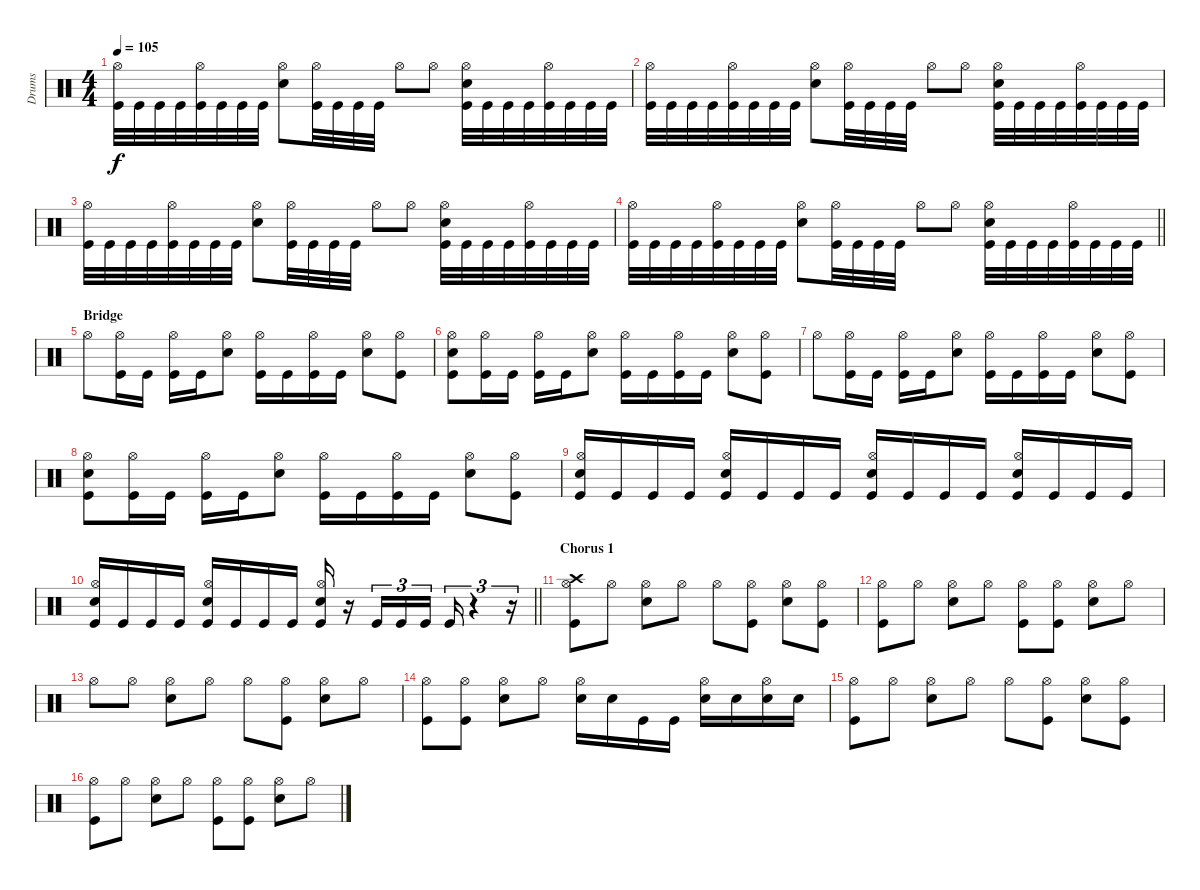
\track ("Drums" "Drums") {instrument percussion}
\staff {score}
\articulation defaults
\ts (4 4)
\tempo 105
\clef neutral
\ks c
("Kick (hit)" "Hi-Hat (open)").32{dy f} "Kick (hit)".32 "Kick (hit)".32 "Kick (hit)".32 ("Kick (hit)" "Hi-Hat (open)").32 "Kick (hit)".32 "Kick (hit)".32 "Kick (hit)".32 ("Hi-Hat (open)" "Snare (hit) 2").8 ("Hi-Hat (open)" "Kick (hit)").32 "Kick (hit)".32 "Kick (hit)".32 "Kick (hit)".32 "Hi-Hat (open)".8 "Hi-Hat (open)".8 ("Hi-Hat (open)" "Snare (hit) 2" "Kick (hit)").32 "Kick (hit)".32 "Kick (hit)".32 "Kick (hit)".32 ("Hi-Hat (open)" "Kick (hit)").32 "Kick (hit)".32 "Kick (hit)".32 "Kick (hit)".32 |
("Kick (hit)" "Hi-Hat (open)").32 "Kick (hit)".32 "Kick (hit)".32 "Kick (hit)".32 ("Kick (hit)" "Hi-Hat (open)").32 "Kick (hit)".32 "Kick (hit)".32 "Kick (hit)".32 ("Hi-Hat (open)" "Snare (hit) 2").8 ("Hi-Hat (open)" "Kick (hit)").32 "Kick (hit)".32 "Kick (hit)".32 "Kick (hit)".32 "Hi-Hat (open)".8 "Hi-Hat (open)".8 ("Hi-Hat (open)" "Snare (hit) 2" "Kick (hit)").32 "Kick (hit)".32 "Kick (hit)".32 "Kick (hit)".32 ("Hi-Hat (open)" "Kick (hit)").32 "Kick (hit)".32 "Kick (hit)".32 "Kick (hit)".32 |
("Kick (hit)" "Hi-Hat (open)").32 "Kick (hit)".32 "Kick (hit)".32 "Kick (hit)".32 ("Kick (hit)" "Hi-Hat (open)").32 "Kick (hit)".32 "Kick (hit)".32 "Kick (hit)".32 ("Hi-Hat (open)" "Snare (hit) 2").8 ("Hi-Hat (open)" "Kick (hit)").32 "Kick (hit)".32 "Kick (hit)".32 "Kick (hit)".32 "Hi-Hat (open)".8 "Hi-Hat (open)".8 ("Hi-Hat (open)" "Snare (hit) 2" "Kick (hit)").32 "Kick (hit)".32 "Kick (hit)".32 "Kick (hit)".32 ("Hi-Hat (open)" "Kick (hit)").32 "Kick (hit)".32 "Kick (hit)".32 "Kick (hit)".32 |
\barLineRight lightlight
("Kick (hit)" "Hi-Hat (open)").32 "Kick (hit)".32 "Kick (hit)".32 "Kick (hit)".32 ("Kick (hit)" "Hi-Hat (open)").32 "Kick (hit)".32 "Kick (hit)".32 "Kick (hit)".32 ("Hi-Hat (open)" "Snare (hit) 2").8 ("Hi-Hat (open)" "Kick (hit)").32 "Kick (hit)".32 "Kick (hit)".32 "Kick (hit)".32 "Hi-Hat (open)".8 "Hi-Hat (open)".8 ("Hi-Hat (open)" "Snare (hit) 2" "Kick (hit)").32 "Kick (hit)".32 "Kick (hit)".32 "Kick (hit)".32 ("Hi-Hat (open)" "Kick (hit)").32 "Kick (hit)".32 "Kick (hit)".32 "Kick (hit)".32 |
\section ("" "Bridge")
"Hi-Hat (open)".8 ("Hi-Hat (open)" "Kick (hit)").16 "Kick (hit)".16 ("Kick (hit)" "Hi-Hat (open)").16 "Kick (hit)".16 ("Snare (hit) 2" "Hi-Hat (open)").8 ("Kick (hit)" "Hi-Hat (open)").16 "Kick (hit)".16 ("Hi-Hat (open)" "Kick (hit)").16 "Kick (hit)".16 ("Snare (hit) 2" "Hi-Hat (open)").8 ("Hi-Hat (open)" "Kick (hit)").8 |
("Kick (hit)" "Snare (hit) 2" "Hi-Hat (open)").8 ("Hi-Hat (open)" "Kick (hit)").16 "Kick (hit)".16 ("Kick (hit)" "Hi-Hat (open)").16 "Kick (hit)".16 ("Snare (hit) 2" "Hi-Hat (open)").8 ("Kick (hit)" "Hi-Hat (open)").16 "Kick (hit)".16 ("Hi-Hat (open)" "Kick (hit)").16 "Kick (hit)".16 ("Snare (hit) 2" "Hi-Hat (open)").8 ("Hi-Hat (open)" "Kick (hit)").8 |
"Hi-Hat (open)".8 ("Hi-Hat (open)" "Kick (hit)").16 "Kick (hit)".16 ("Kick (hit)" "Hi-Hat (open)").16 "Kick (hit)".16 ("Snare (hit) 2" "Hi-Hat (open)").8 ("Kick (hit)" "Hi-Hat (open)").16 "Kick (hit)".16 ("Hi-Hat (open)" "Kick (hit)").16 "Kick (hit)".16 ("Snare (hit) 2" "Hi-Hat (open)").8 ("Hi-Hat (open)" "Kick (hit)").8 |
("Kick (hit)" "Snare (hit) 2" "Hi-Hat (open)").8 ("Hi-Hat (open)" "Kick (hit)").16 "Kick (hit)".16 ("Kick (hit)" "Hi-Hat (open)").16 "Kick (hit)".16 ("Snare (hit) 2" "Hi-Hat (open)").8 ("Kick (hit)" "Hi-Hat (open)").16 "Kick (hit)".16 ("Hi-Hat (open)" "Kick (hit)").16 "Kick (hit)".16 ("Snare (hit) 2" "Hi-Hat (open)").8 ("Hi-Hat (open)" "Kick (hit)").8 |
("Hi-Hat (open)" "Snare (hit) 2" "Kick (hit)").16 "Kick (hit)".16 "Kick (hit)".16 "Kick (hit)".16 ("Hi-Hat (open)" "Kick (hit)" "Snare (hit) 2").16 "Kick (hit)".16 "Kick (hit)".16 "Kick (hit)".16 ("Hi-Hat (open)" "Kick (hit)" "Snare (hit) 2").16 "Kick (hit)".16 "Kick (hit)".16 "Kick (hit)".16 ("Hi-Hat (open)" "Kick (hit)" "Snare (hit) 2").16 "Kick (hit)".16 "Kick (hit)".16 "Kick (hit)".16 |
\barLineRight lightlight
("Hi-Hat (open)" "Snare (hit) 2" "Kick (hit)").16 "Kick (hit)".16 "Kick (hit)".16 "Kick (hit)".16 ("Hi-Hat (open)" "Kick (hit)" "Snare (hit) 2").16 "Kick (hit)".16 "Kick (hit)".16 "Kick (hit)".16 ("Hi-Hat (open)" "Kick (hit)" "Snare (hit) 2").16 r.16 "Kick (hit)".16{tu (3 2)} "Kick (hit)".16{tu (3 2)} "Kick (hit)".16{tu (3 2)} "Kick (hit)".16{tu (3 2)} r.4{tu (3 2)} r.16{tu (3 2)} |
\section ("" "Chorus 1")
("Kick (hit)" "Hi-Hat (open)" "Crash high (hit)").8 "Hi-Hat (open)".8 ("Snare (hit) 2" "Hi-Hat (open)").8 "Hi-Hat (open)".8 "Hi-Hat (open)".8 ("Kick (hit)" "Hi-Hat (open)").8 ("Snare (hit) 2" "Hi-Hat (open)").8 ("Kick (hit)" "Hi-Hat (open)").8 |
("Kick (hit)" "Hi-Hat (open)").8 "Hi-Hat (open)".8 ("Snare (hit) 2" "Hi-Hat (open)").8 "Hi-Hat (open)".8 ("Kick (hit)" "Hi-Hat (open)").8 ("Kick (hit)" "Hi-Hat (open)").8 ("Snare (hit) 2" "Hi-Hat (open)").8 "Hi-Hat (open)".8 |
"Hi-Hat (open)".8 "Hi-Hat (open)".8 ("Snare (hit) 2" "Hi-Hat (open)").8 "Hi-Hat (open)".8 "Hi-Hat (open)".8 ("Kick (hit)" "Hi-Hat (open)").8 ("Snare (hit) 2" "Hi-Hat (open)").8 "Hi-Hat (open)".8 |
("Kick (hit)" "Hi-Hat (open)").8 ("Kick (hit)" "Hi-Hat (open)").8 ("Snare (hit) 2" "Hi-Hat (open)").8 "Hi-Hat (open)".8 ("Snare (hit) 2" "Hi-Hat (open)").16 "Snare (hit) 2".16 "Kick (hit)".16 "Kick (hit)".16 ("Snare (hit) 2" "Hi-Hat (open)").16 "Snare (hit) 2".16 ("Snare (hit) 2" "Hi-Hat (open)").16 "Snare (hit) 2".16 |
("Kick (hit)" "Hi-Hat (open)").8 "Hi-Hat (open)".8 ("Snare (hit) 2" "Hi-Hat (open)").8 "Hi-Hat (open)".8 "Hi-Hat (open)".8 ("Kick (hit)" "Hi-Hat (open)").8 ("Snare (hit) 2" "Hi-Hat (open)").8 ("Kick (hit)" "Hi-Hat (open)").8 |
("Kick (hit)" "Hi-Hat (open)").8 "Hi-Hat (open)".8 ("Snare (hit) 2" "Hi-Hat (open)").8 "Hi-Hat (open)".8 ("Kick (hit)" "Hi-Hat (open)").8 ("Kick (hit)" "Hi-Hat (open)").8 ("Snare (hit) 2" "Hi-Hat (open)").8 "Hi-Hat (open)".8
